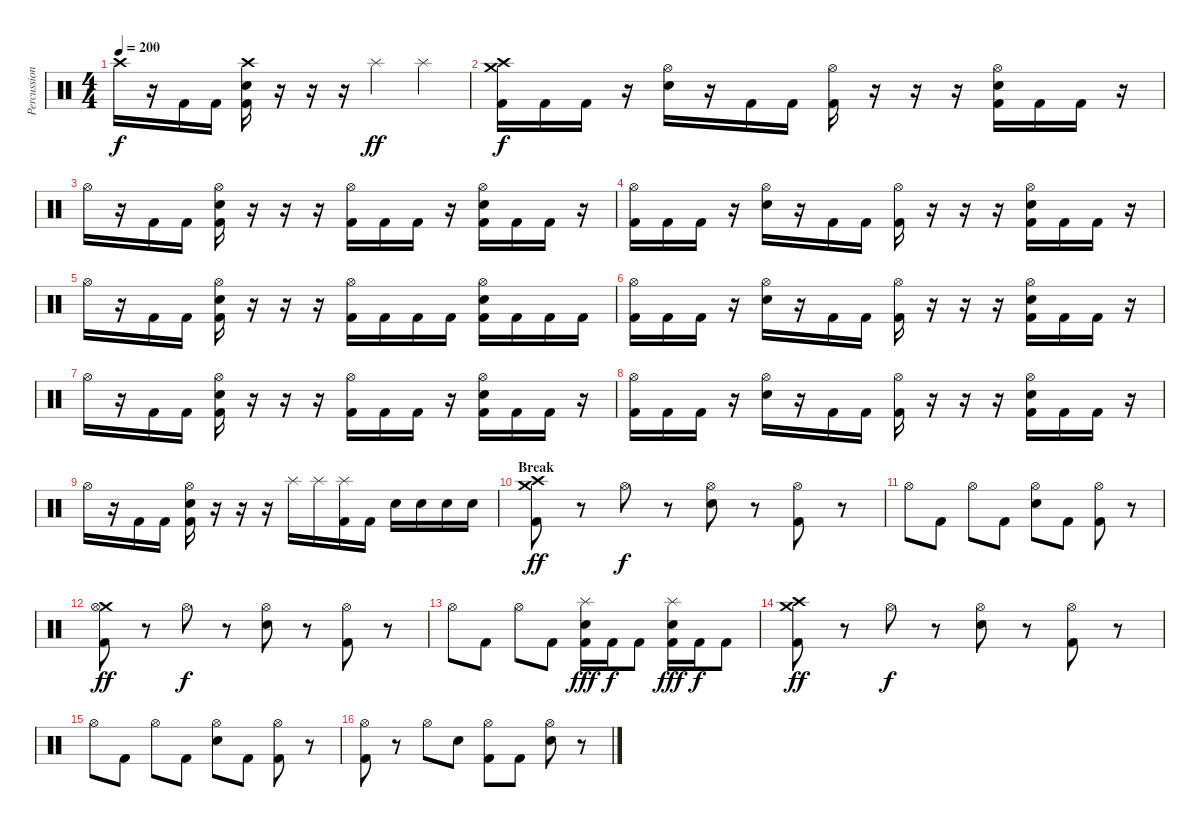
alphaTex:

\track ("Percussions" "Percussion") {instrument percussion}
\staff {score}
\articulation defaults
\ts (4 4)
\tempo 200
\clef neutral
\ks c "Crash high (hit)".16{dy f}
r.16 "Kick (hit) 2".16 "Kick (hit) 2".16 ("Crash high (hit)" "Electric Snare (hit)" "Kick (hit) 2").16 r.16 r.16 r.16 "Splash (hit)".4{dy ff} "Splash (hit)".4 |
("Crash medium (hit)" "Crash high (hit)" "Kick (hit) 2").16{dy f} "Kick (hit) 2".16 "Kick (hit) 2".16 r.16 ("Hi-Hat (open)" "Electric Snare (hit)").16 r.16 "Kick (hit) 2".16 "Kick (hit) 2".16 ("Hi-Hat (open)" "Kick (hit) 2").16 r.16 r.16 r.16 ("Hi-Hat (open)" "Electric Snare (hit)" "Kick (hit) 2").16 "Kick (hit) 2".16 "Kick (hit) 2".16 r.16 |
"Hi-Hat (open)".16 r.16 "Kick (hit) 2".16 "Kick (hit) 2".16 ("Hi-Hat (open)" "Electric Snare (hit)" "Kick (hit) 2").16 r.16 r.16 r.16 ("Hi-Hat (open)" "Kick (hit) 2").16 "Kick (hit) 2".16 "Kick (hit) 2".16 r.16 ("Hi-Hat (open)" "Electric Snare (hit)" "Kick (hit) 2").16 "Kick (hit) 2".16 "Kick (hit) 2".16 r.16 |
("Hi-Hat (open)" "Kick (hit) 2").16 "Kick (hit) 2".16 "Kick (hit) 2".16 r.16 ("Hi-Hat (open)" "Electric Snare (hit)").16 r.16 "Kick (hit) 2".16 "Kick (hit) 2".16 ("Hi-Hat (open)" "Kick (hit) 2").16 r.16 r.16 r.16 ("Hi-Hat (open)" "Electric Snare (hit)" "Kick (hit) 2").16 "Kick (hit) 2".16 "Kick (hit) 2".16 r.16 |
"Hi-Hat (open)".16 r.16 "Kick (hit) 2".16 "Kick (hit) 2".16 ("Hi-Hat (open)" "Electric Snare (hit)" "Kick (hit) 2").16 r.16 r.16 r.16 ("Hi-Hat (open)" "Kick (hit) 2").16 "Kick (hit) 2".16 "Kick (hit) 2".16 "Kick (hit) 2".16 ("Hi-Hat (open)" "Electric Snare (hit)" "Kick (hit) 2").16 "Kick (hit) 2".16 "Kick (hit) 2".16 "Kick (hit) 2".16 |
("Hi-Hat (open)" "Kick (hit) 2").16 "Kick (hit) 2".16 "Kick (hit) 2".16 r.16 ("Hi-Hat (open)" "Electric Snare (hit)").16 r.16 "Kick (hit) 2".16 "Kick (hit) 2".16 ("Hi-Hat (open)" "Kick (hit) 2").16 r.16 r.16 r.16 ("Hi-Hat (open)" "Electric Snare (hit)" "Kick (hit) 2").16 "Kick (hit) 2".16 "Kick (hit) 2".16 r.16 |
"Hi-Hat (open)".16 r.16 "Kick (hit) 2".16 "Kick (hit) 2".16 ("Hi-Hat (open)" "Electric Snare (hit)" "Kick (hit) 2").16 r.16 r.16 r.16 ("Hi-Hat (open)" "Kick (hit) 2").16 "Kick (hit) 2".16 "Kick (hit) 2".16 r.16 ("Hi-Hat (open)" "Electric Snare (hit)" "Kick (hit) 2").16 "Kick (hit) 2".16 "Kick (hit) 2".16 r.16 |
("Hi-Hat (open)" "Kick (hit) 2").16 "Kick (hit) 2".16 "Kick (hit) 2".16 r.16 ("Hi-Hat (open)" "Electric Snare (hit)").16 r.16 "Kick (hit) 2".16 "Kick (hit) 2".16 ("Hi-Hat (open)" "Kick (hit) 2").16 r.16 r.16 r.16 ("Hi-Hat (open)" "Electric Snare (hit)" "Kick (hit) 2").16 "Kick (hit) 2".16 "Kick (hit) 2".16 r.16 |
"Hi-Hat (open)".16 r.16 "Kick (hit) 2".16 "Kick (hit) 2".16 ("Hi-Hat (open)" "Electric Snare (hit)" "Kick (hit) 2").16 r.16 r.16 r.16 "Splash (hit)".16 "Splash (hit)".16 ("Splash (hit)" "Kick (hit) 2").16 "Kick (hit) 2".16 "Electric Snare (hit)".16 "Electric Snare (hit)".16 "Electric Snare (hit)".16 "Electric Snare (hit)".16 |
\section ("" "Break")
("Crash high (hit)" "Crash medium (hit)" "Kick (hit) 2").8{dy ff} r.8 "Hi-Hat (open)".8{dy f} r.8 ("Hi-Hat (open)" "Electric Snare (hit)").8 r.8 ("Hi-Hat (open)" "Kick (hit) 2").8 r.8 |
"Hi-Hat (open)".8 "Kick (hit) 2".8 "Hi-Hat (open)".8 "Kick (hit) 2".8 ("Hi-Hat (open)" "Electric Snare (hit)").8 "Kick (hit) 2".8 ("Hi-Hat (open)" "Kick (hit) 2").8 r.8 |
("Crash medium (hit)" "Hi-Hat (open)" "Kick (hit) 2").8{dy ff} r.8 "Hi-Hat (open)".8{dy f} r.8 ("Hi-Hat (open)" "Electric Snare (hit)").8 r.8 ("Hi-Hat (open)" "Kick (hit) 2").8 r.8 |
"Hi-Hat (open)".8 "Kick (hit) 2".8 "Hi-Hat (open)".8 "Kick (hit) 2".8 ("Splash (hit)" "Electric Snare (hit)" "Kick (hit) 2").16{dy fff} "Kick (hit) 2".16{dy f} "Kick (hit) 2".8 ("Splash (hit)" "Electric Snare (hit)" "Kick (hit) 2").16{dy fff} "Kick (hit) 2".16{dy f} "Kick (hit) 2".8 |
("Crash high (hit)" "Crash medium (hit)" "Kick (hit) 2").8{dy ff} r.8 "Hi-Hat (open)".8{dy f} r.8 ("Hi-Hat (open)" "Electric Snare (hit)").8 r.8 ("Hi-Hat (open)" "Kick (hit) 2").8 r.8 |
"Hi-Hat (open)".8 "Kick (hit) 2".8 "Hi-Hat (open)".8 "Kick (hit) 2".8 ("Hi-Hat (open)" "Electric Snare (hit)").8 "Kick (hit) 2".8 ("Hi-Hat (open)" "Kick (hit) 2").8 r.8 |
("Hi-Hat (open)" "Kick (hit) 2").8 r.8 "Hi-Hat (open)".8 "Electric Snare (hit)".8 ("Hi-Hat (open)" "Kick (hit) 2").8 "Kick (hit) 2".8 ("Hi-Hat (open)" "Electric Snare (hit)").8 r.8
